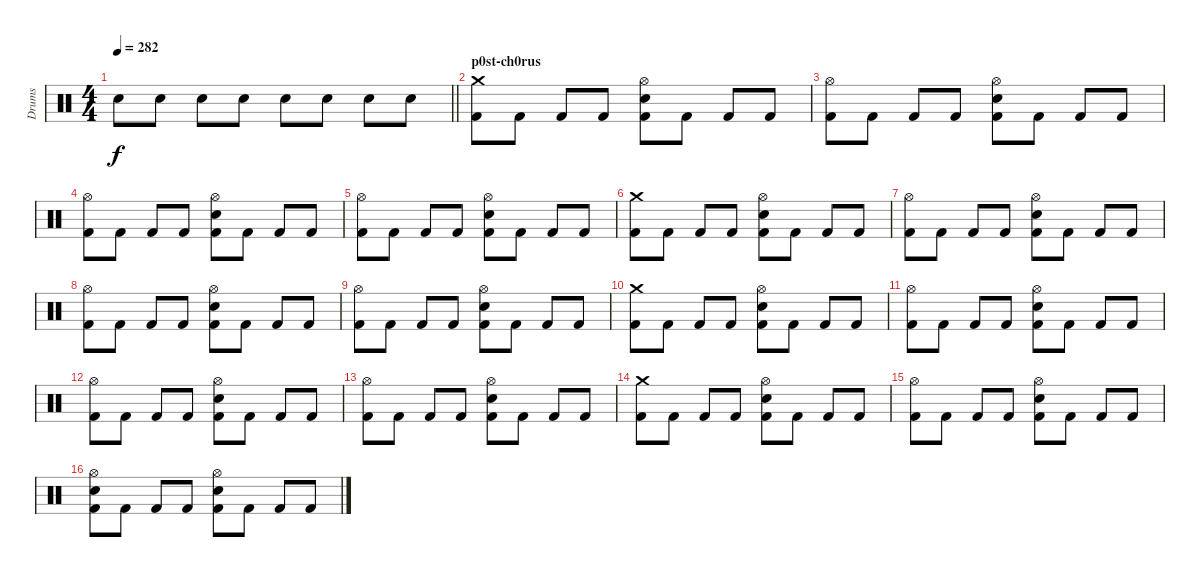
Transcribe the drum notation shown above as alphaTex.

\track ("Drums" "Drums") {instrument percussion}
\staff {score}
\articulation defaults
\ts (4 4)
\tempo 282
\clef neutral
\barLineRight lightlight
\ks c "Snare (hit) 2".8{dy f} "Snare (hit) 2".8 "Snare (hit) 2".8 "Snare (hit) 2".8 "Snare (hit) 2".8 "Snare (hit) 2".8 "Snare (hit) 2".8 "Snare (hit) 2".8
|
\section ("" "p0st-ch0rus")
("Crash medium (hit)" "Kick (hit) 2").8 "Kick (hit) 2".8 "Kick (hit) 2".8 "Kick (hit) 2".8 ("Hi-Hat (open)" "Snare (hit) 2" "Kick (hit) 2").8 "Kick (hit) 2".8 "Kick (hit) 2".8 "Kick (hit) 2".8 |
("Hi-Hat (open)" "Kick (hit) 2").8 "Kick (hit) 2".8 "Kick (hit) 2".8 "Kick (hit) 2".8 ("Hi-Hat (open)" "Snare (hit) 2" "Kick (hit) 2").8 "Kick (hit) 2".8 "Kick (hit) 2".8 "Kick (hit) 2".8 |
("Hi-Hat (open)" "Kick (hit) 2").8 "Kick (hit) 2".8 "Kick (hit) 2".8 "Kick (hit) 2".8 ("Hi-Hat (open)" "Snare (hit) 2" "Kick (hit) 2").8 "Kick (hit) 2".8 "Kick (hit) 2".8 "Kick (hit) 2".8 |
("Hi-Hat (open)" "Kick (hit) 2").8 "Kick (hit) 2".8 "Kick (hit) 2".8 "Kick (hit) 2".8 ("Hi-Hat (open)" "Snare (hit) 2" "Kick (hit) 2").8 "Kick (hit) 2".8 "Kick (hit) 2".8 "Kick (hit) 2".8 |
("Crash medium (hit)" "Kick (hit) 2").8 "Kick (hit) 2".8 "Kick (hit) 2".8 "Kick (hit) 2".8 ("Hi-Hat (open)" "Snare (hit) 2" "Kick (hit) 2").8 "Kick (hit) 2".8 "Kick (hit) 2".8 "Kick (hit) 2".8 |
("Hi-Hat (open)" "Kick (hit) 2").8 "Kick (hit) 2".8 "Kick (hit) 2".8 "Kick (hit) 2".8 ("Hi-Hat (open)" "Snare (hit) 2" "Kick (hit) 2").8 "Kick (hit) 2".8 "Kick (hit) 2".8 "Kick (hit) 2".8 |
("Hi-Hat (open)" "Kick (hit) 2").8 "Kick (hit) 2".8 "Kick (hit) 2".8 "Kick (hit) 2".8 ("Hi-Hat (open)" "Snare (hit) 2" "Kick (hit) 2").8 "Kick (hit) 2".8 "Kick (hit) 2".8 "Kick (hit) 2".8 |
("Hi-Hat (open)" "Kick (hit) 2").8 "Kick (hit) 2".8 "Kick (hit) 2".8 "Kick (hit) 2".8 ("Hi-Hat (open)" "Snare (hit) 2" "Kick (hit) 2").8 "Kick (hit) 2".8 "Kick (hit) 2".8 "Kick (hit) 2".8 |
("Crash medium (hit)" "Kick (hit) 2").8 "Kick (hit) 2".8 "Kick (hit) 2".8 "Kick (hit) 2".8 ("Hi-Hat (open)" "Snare (hit) 2" "Kick (hit) 2").8 "Kick (hit) 2".8 "Kick (hit) 2".8 "Kick (hit) 2".8 |
("Hi-Hat (open)" "Kick (hit) 2").8 "Kick (hit) 2".8 "Kick (hit) 2".8 "Kick (hit) 2".8 ("Hi-Hat (open)" "Snare (hit) 2" "Kick (hit) 2").8 "Kick (hit) 2".8 "Kick (hit) 2".8 "Kick (hit) 2".8 |
("Hi-Hat (open)" "Kick (hit) 2").8 "Kick (hit) 2".8 "Kick (hit) 2".8 "Kick (hit) 2".8 ("Hi-Hat (open)" "Snare (hit) 2" "Kick (hit) 2").8 "Kick (hit) 2".8 "Kick (hit) 2".8 "Kick (hit) 2".8 |
("Hi-Hat (open)" "Kick (hit) 2").8 "Kick (hit) 2".8 "Kick (hit) 2".8 "Kick (hit) 2".8 ("Hi-Hat (open)" "Snare (hit) 2" "Kick (hit) 2").8 "Kick (hit) 2".8 "Kick (hit) 2".8 "Kick (hit) 2".8 |
("Crash medium (hit)" "Kick (hit) 2").8 "Kick (hit) 2".8 "Kick (hit) 2".8 "Kick (hit) 2".8 ("Hi-Hat (open)" "Snare (hit) 2" "Kick (hit) 2").8 "Kick (hit) 2".8 "Kick (hit) 2".8 "Kick (hit) 2".8 |
("Hi-Hat (open)" "Kick (hit) 2").8 "Kick (hit) 2".8 "Kick (hit) 2".8 "Kick (hit) 2".8 ("Hi-Hat (open)" "Snare (hit) 2" "Kick (hit) 2").8 "Kick (hit) 2".8 "Kick (hit) 2".8 "Kick (hit) 2".8 |
("Hi-Hat (open)" "Snare (hit) 2" "Kick (hit) 2").8 "Kick (hit) 2".8 "Kick (hit) 2".8 "Kick (hit) 2".8 ("Hi-Hat (open)" "Snare (hit) 2" "Kick (hit) 2").8 "Kick (hit) 2".8 "Kick (hit) 2".8 "Kick (hit) 2".8
